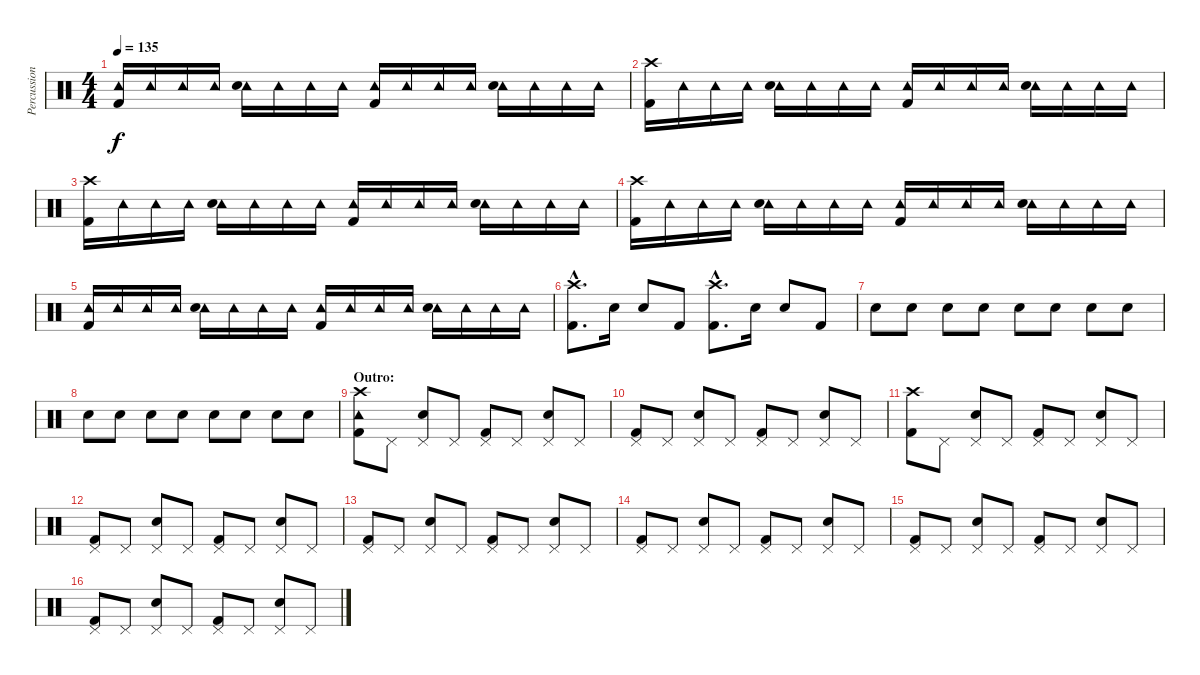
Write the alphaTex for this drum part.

\track ("Percussion" "Percussion") {instrument percussion}
\staff {score}
\articulation defaults
\ts (4 4)
\tempo 135
\clef neutral
\ks c
("Tambourine (hit)" "Kick (hit) 2").16{dy f} "Tambourine (hit)".16 "Tambourine (hit)".16 "Tambourine (hit)".16 ("Tambourine (hit)" "Snare (hit) 2").16 "Tambourine (hit)".16 "Tambourine (hit)".16 "Tambourine (hit)".16 ("Tambourine (hit)" "Kick (hit) 2").16 "Tambourine (hit)".16 "Tambourine (hit)".16 "Tambourine (hit)".16 ("Tambourine (hit)" "Snare (hit) 2").16 "Tambourine (hit)".16 "Tambourine (hit)".16 "Tambourine (hit)".16 |
("Crash high (hit)" "Kick (hit) 2").16 "Tambourine (hit)".16 "Tambourine (hit)".16 "Tambourine (hit)".16 ("Tambourine (hit)" "Snare (hit) 2").16 "Tambourine (hit)".16 "Tambourine (hit)".16 "Tambourine (hit)".16 ("Tambourine (hit)" "Kick (hit) 2").16 "Tambourine (hit)".16 "Tambourine (hit)".16 "Tambourine (hit)".16 ("Tambourine (hit)" "Snare (hit) 2").16 "Tambourine (hit)".16 "Tambourine (hit)".16 "Tambourine (hit)".16 |
("Crash high (hit)" "Kick (hit) 2").16 "Tambourine (hit)".16 "Tambourine (hit)".16 "Tambourine (hit)".16 ("Tambourine (hit)" "Snare (hit) 2").16 "Tambourine (hit)".16 "Tambourine (hit)".16 "Tambourine (hit)".16 ("Tambourine (hit)" "Kick (hit) 2").16 "Tambourine (hit)".16 "Tambourine (hit)".16 "Tambourine (hit)".16 ("Tambourine (hit)" "Snare (hit) 2").16 "Tambourine (hit)".16 "Tambourine (hit)".16 "Tambourine (hit)".16 |
("Crash high (hit)" "Kick (hit) 2").16 "Tambourine (hit)".16 "Tambourine (hit)".16 "Tambourine (hit)".16 ("Tambourine (hit)" "Snare (hit) 2").16 "Tambourine (hit)".16 "Tambourine (hit)".16 "Tambourine (hit)".16 ("Tambourine (hit)" "Kick (hit) 2").16 "Tambourine (hit)".16 "Tambourine (hit)".16 "Tambourine (hit)".16 ("Tambourine (hit)" "Snare (hit) 2").16 "Tambourine (hit)".16 "Tambourine (hit)".16 "Tambourine (hit)".16 |
("Tambourine (hit)" "Kick (hit) 2").16 "Tambourine (hit)".16 "Tambourine (hit)".16 "Tambourine (hit)".16 ("Tambourine (hit)" "Snare (hit) 2").16 "Tambourine (hit)".16 "Tambourine (hit)".16 "Tambourine (hit)".16 ("Tambourine (hit)" "Kick (hit) 2").16 "Tambourine (hit)".16 "Tambourine (hit)".16 "Tambourine (hit)".16 ("Tambourine (hit)" "Snare (hit) 2").16 "Tambourine (hit)".16 "Tambourine (hit)".16 "Tambourine (hit)".16 |
("Crash high (hit)"{hac} "Kick (hit) 2"{hac}).8{d} "Snare (hit) 2".16 "Snare (hit) 2".8 "Kick (hit) 2".8 ("Crash high (hit)"{hac} "Kick (hit) 2"{hac}).8{d} "Snare (hit) 2".16 "Snare (hit) 2".8 "Kick (hit) 2".8 |
"Snare (hit) 2".8 "Snare (hit) 2".8 "Snare (hit) 2".8 "Snare (hit) 2".8 "Snare (hit) 2".8 "Snare (hit) 2".8 "Snare (hit) 2".8 "Snare (hit) 2".8 |
"Snare (hit) 2".8 "Snare (hit) 2".8 "Snare (hit) 2".8 "Snare (hit) 2".8 "Snare (hit) 2".8 "Snare (hit) 2".8 "Snare (hit) 2".8 "Snare (hit) 2".8 |
\section ("" "Outro:")
("Crash high (hit)" "Tambourine (hit)" "Kick (hit) 2").8 "Pedal Hi-Hat (hit)".8 ("Pedal Hi-Hat (hit)" "Snare (hit) 2").8 "Pedal Hi-Hat (hit)".8 ("Pedal Hi-Hat (hit)" "Kick (hit) 2").8 "Pedal Hi-Hat (hit)".8 ("Pedal Hi-Hat (hit)" "Snare (hit) 2").8 "Pedal Hi-Hat (hit)".8 |
("Pedal Hi-Hat (hit)" "Kick (hit) 2").8 "Pedal Hi-Hat (hit)".8 ("Pedal Hi-Hat (hit)" "Snare (hit) 2").8 "Pedal Hi-Hat (hit)".8 ("Pedal Hi-Hat (hit)" "Kick (hit) 2").8 "Pedal Hi-Hat (hit)".8 ("Pedal Hi-Hat (hit)" "Snare (hit) 2").8 "Pedal Hi-Hat (hit)".8 |
("Crash high (hit)" "Kick (hit) 2").8 "Pedal Hi-Hat (hit)".8 ("Pedal Hi-Hat (hit)" "Snare (hit) 2").8 "Pedal Hi-Hat (hit)".8 ("Pedal Hi-Hat (hit)" "Kick (hit) 2").8 "Pedal Hi-Hat (hit)".8 ("Pedal Hi-Hat (hit)" "Snare (hit) 2").8 "Pedal Hi-Hat (hit)".8 |
("Pedal Hi-Hat (hit)" "Kick (hit) 2").8 "Pedal Hi-Hat (hit)".8 ("Pedal Hi-Hat (hit)" "Snare (hit) 2").8 "Pedal Hi-Hat (hit)".8 ("Pedal Hi-Hat (hit)" "Kick (hit) 2").8 "Pedal Hi-Hat (hit)".8 ("Pedal Hi-Hat (hit)" "Snare (hit) 2").8 "Pedal Hi-Hat (hit)".8 |
("Pedal Hi-Hat (hit)" "Kick (hit) 2").8 "Pedal Hi-Hat (hit)".8 ("Pedal Hi-Hat (hit)" "Snare (hit) 2").8 "Pedal Hi-Hat (hit)".8 ("Pedal Hi-Hat (hit)" "Kick (hit) 2").8 "Pedal Hi-Hat (hit)".8 ("Pedal Hi-Hat (hit)" "Snare (hit) 2").8 "Pedal Hi-Hat (hit)".8 |
("Pedal Hi-Hat (hit)" "Kick (hit) 2").8 "Pedal Hi-Hat (hit)".8 ("Pedal Hi-Hat (hit)" "Snare (hit) 2").8 "Pedal Hi-Hat (hit)".8 ("Pedal Hi-Hat (hit)" "Kick (hit) 2").8 "Pedal Hi-Hat (hit)".8 ("Pedal Hi-Hat (hit)" "Snare (hit) 2").8 "Pedal Hi-Hat (hit)".8 |
("Pedal Hi-Hat (hit)" "Kick (hit) 2").8 "Pedal Hi-Hat (hit)".8 ("Pedal Hi-Hat (hit)" "Snare (hit) 2").8 "Pedal Hi-Hat (hit)".8 ("Pedal Hi-Hat (hit)" "Kick (hit) 2").8 "Pedal Hi-Hat (hit)".8 ("Pedal Hi-Hat (hit)" "Snare (hit) 2").8 "Pedal Hi-Hat (hit)".8 |
("Pedal Hi-Hat (hit)" "Kick (hit) 2").8 "Pedal Hi-Hat (hit)".8 ("Pedal Hi-Hat (hit)" "Snare (hit) 2").8 "Pedal Hi-Hat (hit)".8 ("Pedal Hi-Hat (hit)" "Kick (hit) 2").8 "Pedal Hi-Hat (hit)".8 ("Pedal Hi-Hat (hit)" "Snare (hit) 2").8 "Pedal Hi-Hat (hit)".8
